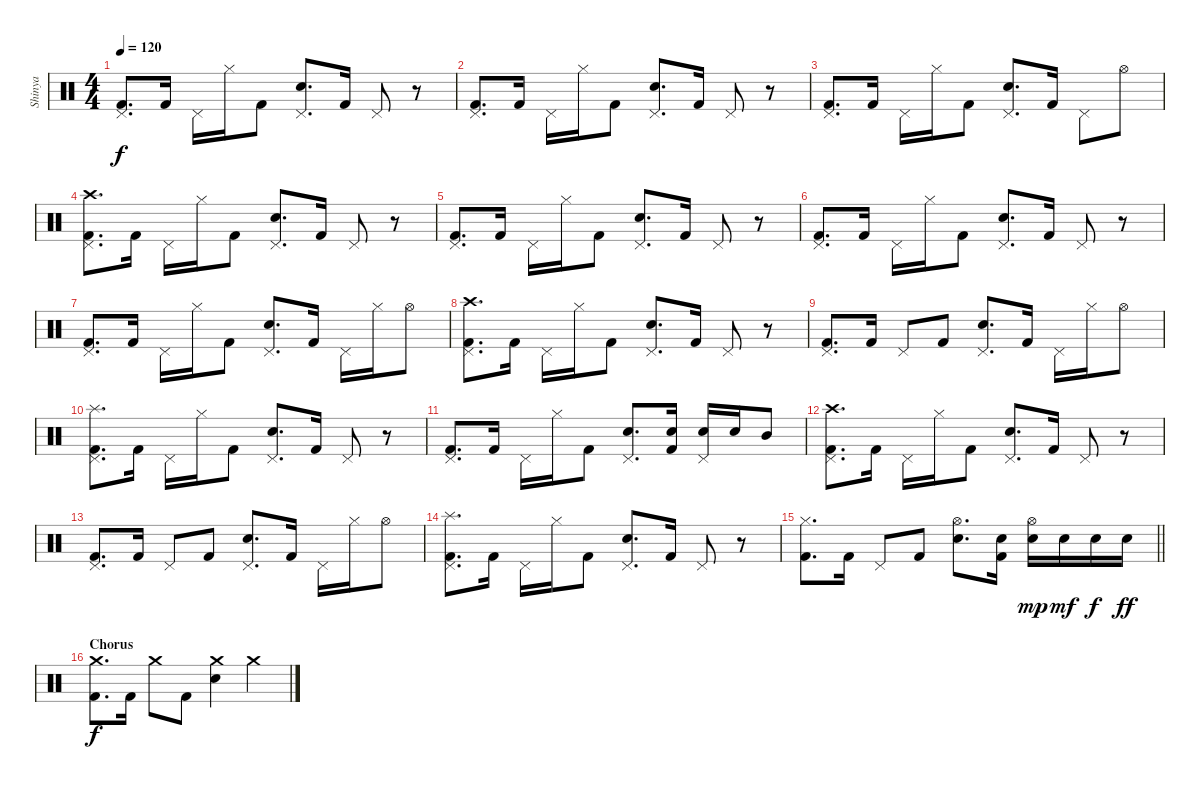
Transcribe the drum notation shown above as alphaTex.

\track ("Shinya" "Shinya") {instrument percussion}
\staff {score}
\articulation defaults
\ts (4 4)
\tempo 120
\clef neutral
\ks c
("Pedal Hi-Hat (hit)" "Kick (hit) 2").8{d dy f} "Kick (hit) 2".16 "Pedal Hi-Hat (hit)".16 "Hi-Hat (closed)".16 "Kick (hit) 2".8 ("Pedal Hi-Hat (hit)" "Electric Snare (hit)").8{d} "Kick (hit) 2".16 "Pedal Hi-Hat (hit)".8 r.8 |
("Pedal Hi-Hat (hit)" "Kick (hit) 2").8{d} "Kick (hit) 2".16 "Pedal Hi-Hat (hit)".16 "Hi-Hat (closed)".16 "Kick (hit) 2".8 ("Pedal Hi-Hat (hit)" "Electric Snare (hit)").8{d} "Kick (hit) 2".16 "Pedal Hi-Hat (hit)".8 r.8 |
("Pedal Hi-Hat (hit)" "Kick (hit) 2").8{d} "Kick (hit) 2".16 "Pedal Hi-Hat (hit)".16 "Hi-Hat (closed)".16 "Kick (hit) 2".8 ("Pedal Hi-Hat (hit)" "Electric Snare (hit)").8{d} "Kick (hit) 2".16 "Pedal Hi-Hat (hit)".8 "Hi-Hat (open)".8 |
("Pedal Hi-Hat (hit)" "Crash high (hit)" "Kick (hit) 2").8{d} "Kick (hit) 2".16 "Pedal Hi-Hat (hit)".16 "Hi-Hat (closed)".16 "Kick (hit) 2".8 ("Pedal Hi-Hat (hit)" "Electric Snare (hit)").8{d} "Kick (hit) 2".16 "Pedal Hi-Hat (hit)".8 r.8 |
("Pedal Hi-Hat (hit)" "Kick (hit) 2").8{d} "Kick (hit) 2".16 "Pedal Hi-Hat (hit)".16 "Hi-Hat (closed)".16 "Kick (hit) 2".8 ("Pedal Hi-Hat (hit)" "Electric Snare (hit)").8{d} "Kick (hit) 2".16 "Pedal Hi-Hat (hit)".8 r.8 |
("Pedal Hi-Hat (hit)" "Kick (hit) 2").8{d} "Kick (hit) 2".16 "Pedal Hi-Hat (hit)".16 "Hi-Hat (closed)".16 "Kick (hit) 2".8 ("Pedal Hi-Hat (hit)" "Electric Snare (hit)").8{d} "Kick (hit) 2".16 "Pedal Hi-Hat (hit)".8 r.8 |
("Pedal Hi-Hat (hit)" "Kick (hit) 2").8{d} "Kick (hit) 2".16 "Pedal Hi-Hat (hit)".16 "Hi-Hat (closed)".16 "Kick (hit) 2".8 ("Pedal Hi-Hat (hit)" "Electric Snare (hit)").8{d} "Kick (hit) 2".16 "Pedal Hi-Hat (hit)".16 "Hi-Hat (closed)".16 "Hi-Hat (open)".8 |
("Pedal Hi-Hat (hit)" "Crash high (hit)" "Kick (hit) 2").8{d} "Kick (hit) 2".16 "Pedal Hi-Hat (hit)".16 "Hi-Hat (closed)".16 "Kick (hit) 2".8 ("Pedal Hi-Hat (hit)" "Electric Snare (hit)").8{d} "Kick (hit) 2".16 "Pedal Hi-Hat (hit)".8 r.8 |
("Pedal Hi-Hat (hit)" "Kick (hit) 2").8{d} "Kick (hit) 2".16 "Pedal Hi-Hat (hit)".8 "Kick (hit) 2".8 ("Pedal Hi-Hat (hit)" "Electric Snare (hit)").8{d} "Kick (hit) 2".16 "Pedal Hi-Hat (hit)".16 "Hi-Hat (closed)".16 "Hi-Hat (open)".8 |
("Pedal Hi-Hat (hit)" "Splash (hit)" "Kick (hit) 2").8{d} "Kick (hit) 2".16 "Pedal Hi-Hat (hit)".16 "Hi-Hat (closed)".16 "Kick (hit) 2".8 ("Pedal Hi-Hat (hit)" "Electric Snare (hit)").8{d} "Kick (hit) 2".16 "Pedal Hi-Hat (hit)".8 r.8 |
("Pedal Hi-Hat (hit)" "Kick (hit) 2").8{d} "Kick (hit) 2".16 "Pedal Hi-Hat (hit)".16 "Hi-Hat (closed)".16 "Kick (hit) 2".8 ("Pedal Hi-Hat (hit)" "Electric Snare (hit)").8{d} ("Snare (hit) 2" "Kick (hit) 2").16 ("Pedal Hi-Hat (hit)" "Electric Snare (hit)").16 "Electric Snare (hit)".16 "Mid Tom (hit)".8 |
("Pedal Hi-Hat (hit)" "Crash high (hit)" "Kick (hit) 2").8{d} "Kick (hit) 2".16 "Pedal Hi-Hat (hit)".16 "Hi-Hat (closed)".16 "Kick (hit) 2".8 ("Pedal Hi-Hat (hit)" "Electric Snare (hit)").8{d} "Kick (hit) 2".16 "Pedal Hi-Hat (hit)".8 r.8 |
("Pedal Hi-Hat (hit)" "Kick (hit) 2").8{d} "Kick (hit) 2".16 "Pedal Hi-Hat (hit)".8 "Kick (hit) 2".8 ("Pedal Hi-Hat (hit)" "Electric Snare (hit)").8{d} "Kick (hit) 2".16 "Pedal Hi-Hat (hit)".16 "Hi-Hat (closed)".16 "Hi-Hat (open)".8 |
("Pedal Hi-Hat (hit)" "Splash (hit)" "Kick (hit) 2").8{d} "Kick (hit) 2".16 "Pedal Hi-Hat (hit)".16 "Hi-Hat (closed)".16 "Kick (hit) 2".8 ("Pedal Hi-Hat (hit)" "Electric Snare (hit)").8{d} "Kick (hit) 2".16 "Pedal Hi-Hat (hit)".8 r.8 |
\barLineRight lightlight
("Hi-Hat (closed)" "Kick (hit) 2").8{d} "Kick (hit) 2".16 "Pedal Hi-Hat (hit)".8 "Kick (hit) 2".8 ("Hi-Hat (open)" "Electric Snare (hit)").8{d} ("Snare (hit) 2" "Kick (hit) 2").16 ("Hi-Hat (open)" "Electric Snare (hit)").16{dy mp} "Electric Snare (hit)".16{dy mf} "Electric Snare (hit)".16{dy f} "Electric Snare (hit)".16{dy ff} |
\section ("" "Chorus")
("Crash medium (hit)" "Kick (hit) 2").8{d dy f} "Kick (hit) 2".16 "Crash medium (hit)".8 "Kick (hit) 2".8 ("Crash medium (hit)" "Electric Snare (hit)").4 "Crash medium (hit)".4
